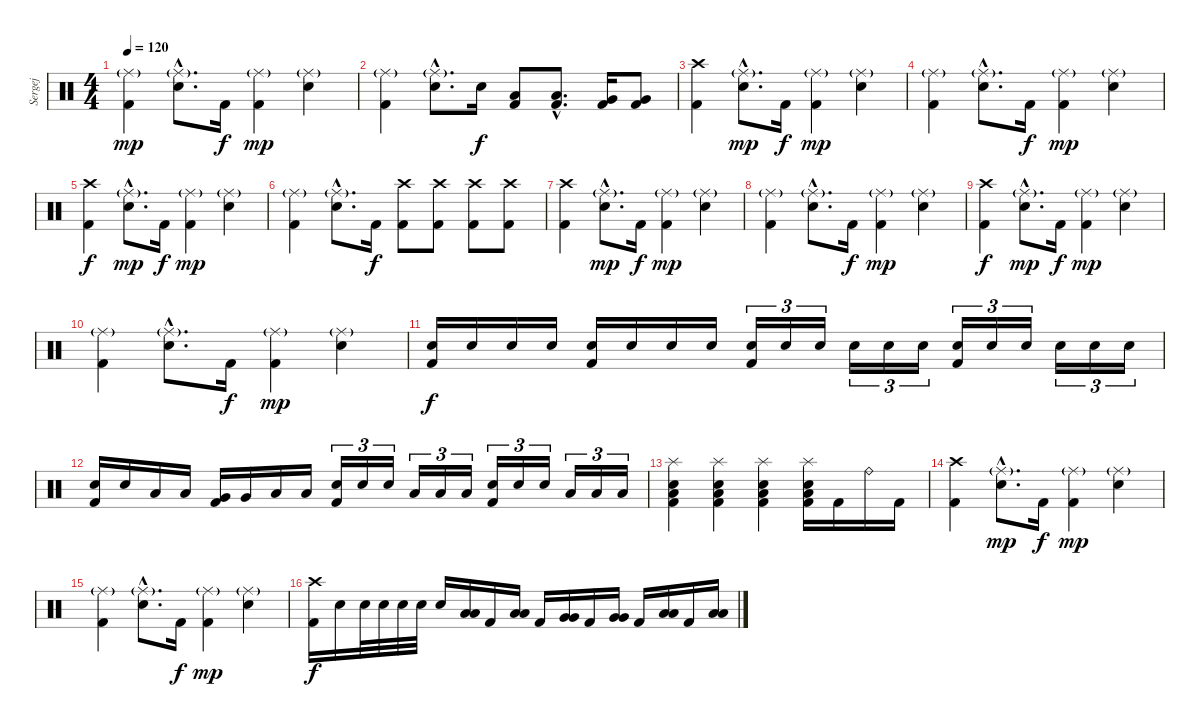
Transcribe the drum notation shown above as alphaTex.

\track ("Sergej" "Sergej") {instrument percussion}
\staff {score}
\articulation defaults
\ts (4 4)
\tempo 120
\clef neutral
\ks c
("Ride (middle)"{g} "Kick (hit) 2").4{dy mp} ("Ride (middle)"{g hac} "Snare (hit) 2"{hac}).8{d} "Kick (hit) 2".16{dy f} ("Ride (middle)"{g} "Kick (hit) 2").4{dy mp} ("Ride (middle)"{g} "Snare (hit) 2").4 |
("Ride (middle)"{g} "Kick (hit) 2").4 ("Ride (middle)"{g hac} "Snare (hit) 2"{hac}).8{d} "Snare (hit) 2".16{dy f} ("Kick (hit) 2" "Low Tom (hit)").8 ("Kick (hit) 2"{hac} "Low Tom (hit)"{hac}).8{d} ("Kick (hit) 2" "Very Low Tom (hit)").16 ("Kick (hit) 2" "Very Low Tom (hit)").8 |
("Crash high (hit)" "Kick (hit) 2").4 ("Ride (middle)"{g hac} "Snare (hit) 2"{hac}).8{d dy mp} "Kick (hit) 2".16{dy f} ("Ride (middle)"{g} "Kick (hit) 2").4{dy mp} ("Ride (middle)"{g} "Snare (hit) 2").4 |
("Ride (middle)"{g} "Kick (hit) 2").4 ("Ride (middle)"{g hac} "Snare (hit) 2"{hac}).8{d} "Kick (hit) 2".16{dy f} ("Ride (middle)"{g} "Kick (hit) 2").4{dy mp} ("Ride (middle)"{g} "Snare (hit) 2").4 |
("Crash high (hit)" "Kick (hit) 2").4{dy f} ("Ride (middle)"{g hac} "Snare (hit) 2"{hac}).8{d dy mp} "Kick (hit) 2".16{dy f} ("Ride (middle)"{g} "Kick (hit) 2").4{dy mp} ("Ride (middle)"{g} "Snare (hit) 2").4 |
("Ride (middle)"{g} "Kick (hit) 2").4 ("Ride (middle)"{g hac} "Snare (hit) 2"{hac}).8{d} "Kick (hit) 2".16{dy f} ("Crash high (hit)" "Kick (hit) 2").8 ("Crash high (hit)" "Kick (hit) 2").8 ("Crash high (hit)" "Kick (hit) 2").8 ("Crash high (hit)" "Kick (hit) 2").8 |
("Crash high (hit)" "Kick (hit) 2").4 ("Ride (middle)"{g hac} "Snare (hit) 2"{hac}).8{d dy mp} "Kick (hit) 2".16{dy f} ("Ride (middle)"{g} "Kick (hit) 2").4{dy mp} ("Ride (middle)"{g} "Snare (hit) 2").4 |
("Ride (middle)"{g} "Kick (hit) 2").4 ("Ride (middle)"{g hac} "Snare (hit) 2"{hac}).8{d} "Kick (hit) 2".16{dy f} ("Ride (middle)"{g} "Kick (hit) 2").4{dy mp} ("Ride (middle)"{g} "Snare (hit) 2").4 |
("Crash high (hit)" "Kick (hit) 2").4{dy f} ("Ride (middle)"{g hac} "Snare (hit) 2"{hac}).8{d dy mp} "Kick (hit) 2".16{dy f} ("Ride (middle)"{g} "Kick (hit) 2").4{dy mp} ("Ride (middle)"{g} "Snare (hit) 2").4 |
("Ride (middle)"{g} "Kick (hit) 2").4 ("Ride (middle)"{g hac} "Snare (hit) 2"{hac}).8{d} "Kick (hit) 2".16{dy f} ("Ride (middle)"{g} "Kick (hit) 2").4{dy mp} ("Ride (middle)"{g} "Snare (hit) 2").4 |
("Kick (hit) 2" "Snare (hit) 2").16{dy f} "Snare (hit) 2".16 "Snare (hit) 2".16 "Snare (hit) 2".16 ("Kick (hit) 2" "Snare (hit) 2").16 "Snare (hit) 2".16 "Snare (hit) 2".16 "Snare (hit) 2".16 ("Kick (hit) 2" "Snare (hit) 2").16{tu (3 2)} "Snare (hit) 2".16{tu (3 2)} "Snare (hit) 2".16{tu (3 2)} "Snare (hit) 2".16{tu (3 2)} "Snare (hit) 2".16{tu (3 2)} "Snare (hit) 2".16{tu (3 2)} ("Kick (hit) 2" "Snare (hit) 2").16{tu (3 2)} "Snare (hit) 2".16{tu (3 2)} "Snare (hit) 2".16{tu (3 2)} "Snare (hit) 2".16{tu (3 2)} "Snare (hit) 2".16{tu (3 2)} "Snare (hit) 2".16{tu (3 2)} |
("Kick (hit) 2" "Snare (hit) 2").16 "Snare (hit) 2".16 "Low Tom (hit)".16 "Low Tom (hit)".16 ("Kick (hit) 2" "Very Low Tom (hit)").16 "Very Low Tom (hit)".16 "Low Floor Tom (hit)".16 "Low Floor Tom (hit)".16 ("Kick (hit) 2" "Snare (hit) 2").16{tu (3 2)} "Snare (hit) 2".16{tu (3 2)} "Snare (hit) 2".16{tu (3 2)} "Low Tom (hit)".16{tu (3 2)} "Low Tom (hit)".16{tu (3 2)} "Low Tom (hit)".16{tu (3 2)} ("Kick (hit) 2" "Snare (hit) 2").16{tu (3 2)} "Snare (hit) 2".16{tu (3 2)} "Snare (hit) 2".16{tu (3 2)} "Low Tom (hit)".16{tu (3 2)} "Low Tom (hit)".16{tu (3 2)} "Low Tom (hit)".16{tu (3 2)} |
("Splash (hit)" "Kick (hit) 2" "Low Floor Tom (hit)" "Snare (hit) 2").4 ("Splash (hit)" "Kick (hit) 2" "Low Floor Tom (hit)" "Snare (hit) 2").4 ("Splash (hit)" "Kick (hit) 2" "Low Floor Tom (hit)" "Snare (hit) 2").4 ("Splash (hit)" "Kick (hit) 2" "Low Floor Tom (hit)" "Snare (hit) 2").16 "Kick (hit) 2".16 "Ride (bell)".16 "Kick (hit) 2".16 |
("Crash high (hit)" "Kick (hit) 2").4 ("Ride (middle)"{g hac} "Snare (hit) 2"{hac}).8{d dy mp} "Kick (hit) 2".16{dy f} ("Ride (middle)"{g} "Kick (hit) 2").4{dy mp} ("Ride (middle)"{g} "Snare (hit) 2").4 |
("Ride (middle)"{g} "Kick (hit) 2").4 ("Ride (middle)"{g hac} "Snare (hit) 2"{hac}).8{d} "Kick (hit) 2".16{dy f} ("Ride (middle)"{g} "Kick (hit) 2").4{dy mp} ("Ride (middle)"{g} "Snare (hit) 2").4 |
("Crash high (hit)" "Kick (hit) 2").16{dy f} "Snare (hit) 2".16 "Snare (hit) 2".32 "Snare (hit) 2".32 "Snare (hit) 2".32 "Snare (hit) 2".32 "Snare (hit) 2".16 ("Low Tom (hit)" "Low Tom (hit)").16{bd 60} "Kick (hit) 2".16 ("Low Tom (hit)" "Low Tom (hit)").16{bd 60} "Kick (hit) 2".16 ("Very Low Tom (hit)" "Very Low Tom (hit)").16{bd 60} "Kick (hit) 2".16 ("Very Low Tom (hit)" "Very Low Tom (hit)").16{bd 60} "Kick (hit) 2".16 ("Low Floor Tom (hit)" "Low Floor Tom (hit)").16{bd 60} "Kick (hit) 2".16 ("Low Floor Tom (hit)" "Low Floor Tom (hit)").16{bd 60}
